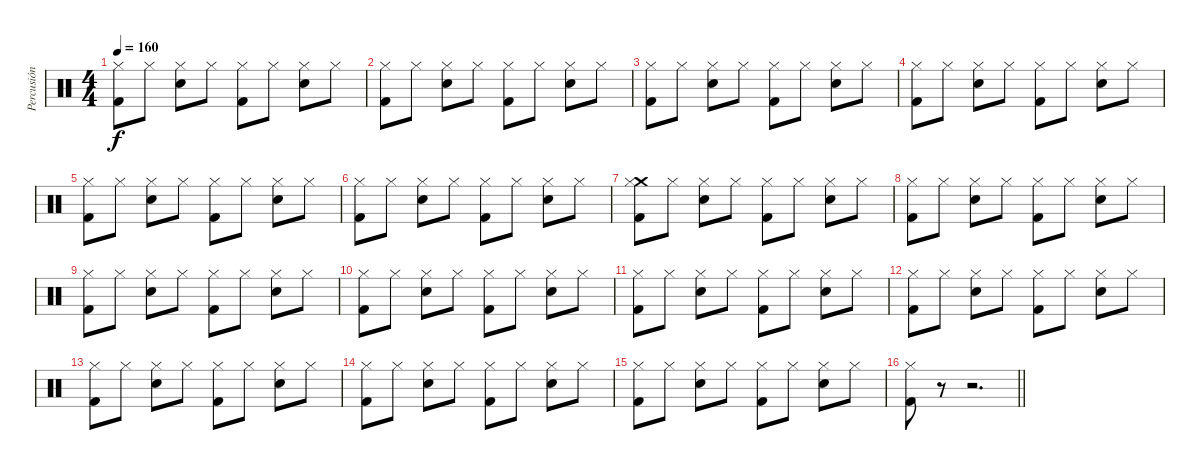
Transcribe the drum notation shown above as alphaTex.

\track ("Percusión" "Percusión") {instrument percussion}
\staff {score}
\articulation defaults
\ts (4 4)
\tempo 160
\clef neutral
\ks c
("Hi-Hat (closed)" "Kick (hit) 2").8{dy f} "Hi-Hat (closed)".8 ("Hi-Hat (closed)" "Snare (hit) 2").8 "Hi-Hat (closed)".8 ("Hi-Hat (closed)" "Kick (hit) 2").8 "Hi-Hat (closed)".8 ("Hi-Hat (closed)" "Snare (hit) 2").8 "Hi-Hat (closed)".8 |
("Hi-Hat (closed)" "Kick (hit) 2").8 "Hi-Hat (closed)".8 ("Hi-Hat (closed)" "Snare (hit) 2").8 "Hi-Hat (closed)".8 ("Hi-Hat (closed)" "Kick (hit) 2").8 "Hi-Hat (closed)".8 ("Hi-Hat (closed)" "Snare (hit) 2").8 "Hi-Hat (closed)".8 |
("Hi-Hat (closed)" "Kick (hit) 2").8 "Hi-Hat (closed)".8 ("Hi-Hat (closed)" "Snare (hit) 2").8 "Hi-Hat (closed)".8 ("Hi-Hat (closed)" "Kick (hit) 2").8 "Hi-Hat (closed)".8 ("Hi-Hat (closed)" "Snare (hit) 2").8 "Hi-Hat (closed)".8 |
("Hi-Hat (closed)" "Kick (hit) 2").8 "Hi-Hat (closed)".8 ("Hi-Hat (closed)" "Snare (hit) 2").8 "Hi-Hat (closed)".8 ("Hi-Hat (closed)" "Kick (hit) 2").8 "Hi-Hat (closed)".8 ("Hi-Hat (closed)" "Snare (hit) 2").8 "Hi-Hat (closed)".8 |
("Hi-Hat (closed)" "Kick (hit) 2").8 "Hi-Hat (closed)".8 ("Hi-Hat (closed)" "Snare (hit) 2").8 "Hi-Hat (closed)".8 ("Hi-Hat (closed)" "Kick (hit) 2").8 "Hi-Hat (closed)".8 ("Hi-Hat (closed)" "Snare (hit) 2").8 "Hi-Hat (closed)".8 |
("Hi-Hat (closed)" "Kick (hit) 2").8 "Hi-Hat (closed)".8 ("Hi-Hat (closed)" "Snare (hit) 2").8 "Hi-Hat (closed)".8 ("Hi-Hat (closed)" "Kick (hit) 2").8 "Hi-Hat (closed)".8 ("Hi-Hat (closed)" "Snare (hit) 2").8 "Hi-Hat (closed)".8 |
("Crash medium (hit)" "Hi-Hat (closed)" "Kick (hit) 2").8 "Hi-Hat (closed)".8 ("Hi-Hat (closed)" "Snare (hit) 2").8 "Hi-Hat (closed)".8 ("Hi-Hat (closed)" "Kick (hit) 2").8 "Hi-Hat (closed)".8 ("Hi-Hat (closed)" "Snare (hit) 2").8 "Hi-Hat (closed)".8 |
("Hi-Hat (closed)" "Kick (hit) 2").8 "Hi-Hat (closed)".8 ("Hi-Hat (closed)" "Snare (hit) 2").8 "Hi-Hat (closed)".8 ("Hi-Hat (closed)" "Kick (hit) 2").8 "Hi-Hat (closed)".8 ("Hi-Hat (closed)" "Snare (hit) 2").8 "Hi-Hat (closed)".8 |
("Hi-Hat (closed)" "Kick (hit) 2").8 "Hi-Hat (closed)".8 ("Hi-Hat (closed)" "Snare (hit) 2").8 "Hi-Hat (closed)".8 ("Hi-Hat (closed)" "Kick (hit) 2").8 "Hi-Hat (closed)".8 ("Hi-Hat (closed)" "Snare (hit) 2").8 "Hi-Hat (closed)".8 |
("Hi-Hat (closed)" "Kick (hit) 2").8 "Hi-Hat (closed)".8 ("Hi-Hat (closed)" "Snare (hit) 2").8 "Hi-Hat (closed)".8 ("Hi-Hat (closed)" "Kick (hit) 2").8 "Hi-Hat (closed)".8 ("Hi-Hat (closed)" "Snare (hit) 2").8 "Hi-Hat (closed)".8 |
("Hi-Hat (closed)" "Kick (hit) 2").8 "Hi-Hat (closed)".8 ("Hi-Hat (closed)" "Snare (hit) 2").8 "Hi-Hat (closed)".8 ("Hi-Hat (closed)" "Kick (hit) 2").8 "Hi-Hat (closed)".8 ("Hi-Hat (closed)" "Snare (hit) 2").8 "Hi-Hat (closed)".8 |
("Hi-Hat (closed)" "Kick (hit) 2").8 "Hi-Hat (closed)".8 ("Hi-Hat (closed)" "Snare (hit) 2").8 "Hi-Hat (closed)".8 ("Hi-Hat (closed)" "Kick (hit) 2").8 "Hi-Hat (closed)".8 ("Hi-Hat (closed)" "Snare (hit) 2").8 "Hi-Hat (closed)".8 |
("Hi-Hat (closed)" "Kick (hit) 2").8 "Hi-Hat (closed)".8 ("Hi-Hat (closed)" "Snare (hit) 2").8 "Hi-Hat (closed)".8 ("Hi-Hat (closed)" "Kick (hit) 2").8 "Hi-Hat (closed)".8 ("Hi-Hat (closed)" "Snare (hit) 2").8 "Hi-Hat (closed)".8 |
("Hi-Hat (closed)" "Kick (hit) 2").8 "Hi-Hat (closed)".8 ("Hi-Hat (closed)" "Snare (hit) 2").8 "Hi-Hat (closed)".8 ("Hi-Hat (closed)" "Kick (hit) 2").8 "Hi-Hat (closed)".8 ("Hi-Hat (closed)" "Snare (hit) 2").8 "Hi-Hat (closed)".8 |
("Hi-Hat (closed)" "Kick (hit) 2").8 "Hi-Hat (closed)".8 ("Hi-Hat (closed)" "Snare (hit) 2").8 "Hi-Hat (closed)".8 ("Hi-Hat (closed)" "Kick (hit) 2").8 "Hi-Hat (closed)".8 ("Hi-Hat (closed)" "Snare (hit) 2").8 "Hi-Hat (closed)".8 |
\barLineRight lightlight
("Hi-Hat (closed)" "Kick (hit) 2").8 r.8 r.2{d}
